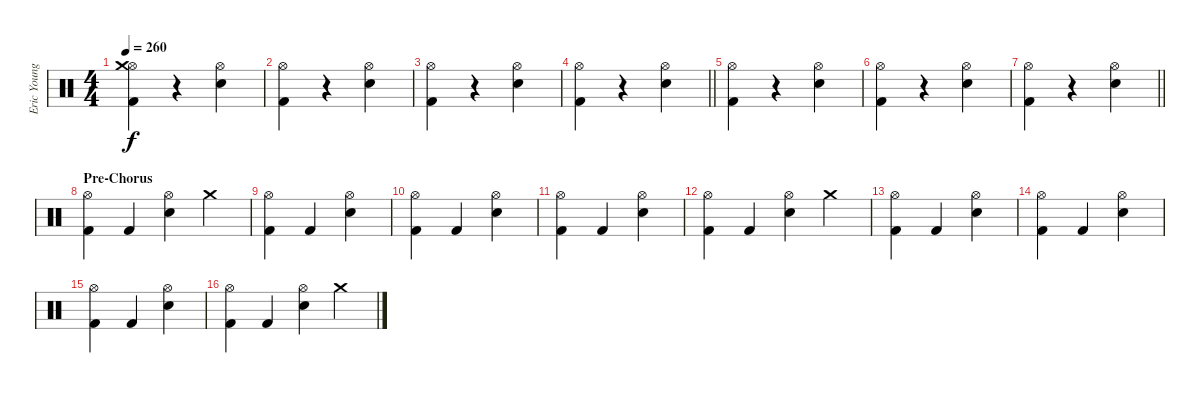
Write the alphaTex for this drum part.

\track ("Eric Young (Drums)" "Eric Young") {instrument percussion}
\staff {score}
\articulation defaults
\ts (4 4)
\tempo 260
\clef neutral
\ks c
("Hi-Hat (open)" "Kick (hit) 2" "Crash medium (hit)").4{dy f} r.4 ("Hi-Hat (open)" "Snare (hit) 2").4 |
("Hi-Hat (open)" "Kick (hit) 2").4 r.4 ("Hi-Hat (open)" "Snare (hit) 2").4 |
("Hi-Hat (open)" "Kick (hit) 2").4 r.4 ("Hi-Hat (open)" "Snare (hit) 2").4 |
\barLineRight lightlight
("Hi-Hat (open)" "Kick (hit) 2").4 r.4 ("Hi-Hat (open)" "Snare (hit) 2").4 |
("Hi-Hat (open)" "Kick (hit) 2").4 r.4 ("Hi-Hat (open)" "Snare (hit) 2").4 |
("Hi-Hat (open)" "Kick (hit) 2").4 r.4 ("Hi-Hat (open)" "Snare (hit) 2").4 |
\barLineRight lightlight
("Hi-Hat (open)" "Kick (hit) 2").4 r.4 ("Hi-Hat (open)" "Snare (hit) 2").4 |
\section ("" "Pre-Chorus")
("Hi-Hat (open)" "Kick (hit) 2").4 "Kick (hit) 2".4 ("Hi-Hat (open)" "Snare (hit) 2").4 "Crash medium (hit)".4 |
("Hi-Hat (open)" "Kick (hit) 2").4 "Kick (hit) 2".4 ("Hi-Hat (open)" "Snare (hit) 2").4 |
("Hi-Hat (open)" "Kick (hit) 2").4 "Kick (hit) 2".4 ("Hi-Hat (open)" "Snare (hit) 2").4 |
("Hi-Hat (open)" "Kick (hit) 2").4 "Kick (hit) 2".4 ("Hi-Hat (open)" "Snare (hit) 2").4 |
("Hi-Hat (open)" "Kick (hit) 2").4 "Kick (hit) 2".4 ("Hi-Hat (open)" "Snare (hit) 2").4 "Crash medium (hit)".4 |
("Hi-Hat (open)" "Kick (hit) 2").4 "Kick (hit) 2".4 ("Hi-Hat (open)" "Snare (hit) 2").4 |
("Hi-Hat (open)" "Kick (hit) 2").4 "Kick (hit) 2".4 ("Hi-Hat (open)" "Snare (hit) 2").4 |
("Hi-Hat (open)" "Kick (hit) 2").4 "Kick (hit) 2".4 ("Hi-Hat (open)" "Snare (hit) 2").4 |
("Hi-Hat (open)" "Kick (hit) 2").4 "Kick (hit) 2".4 ("Hi-Hat (open)" "Snare (hit) 2").4 "Crash medium (hit)".4
